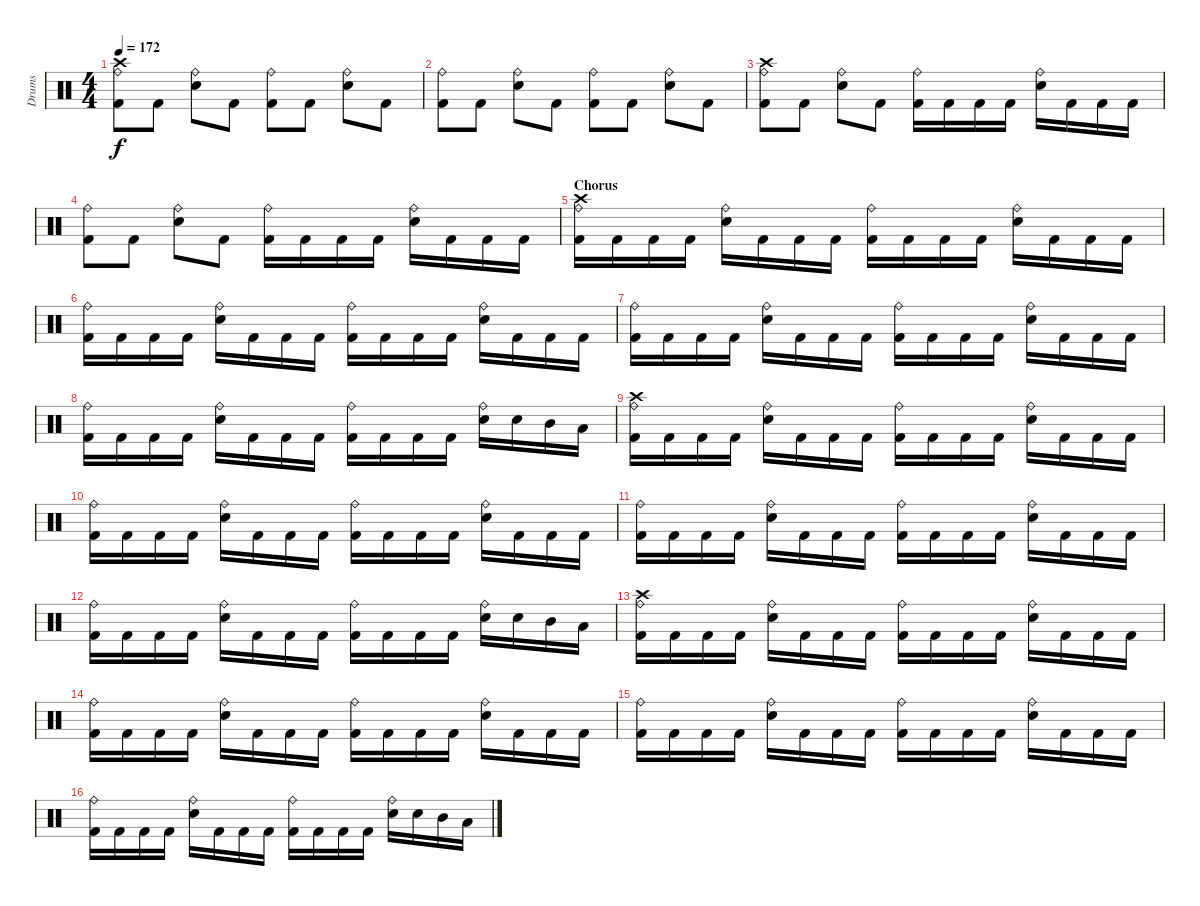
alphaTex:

\track ("Drums" "Drums") {instrument percussion}
\staff {score}
\articulation defaults
\ts (4 4)
\tempo 172
\clef neutral
\ks c
("Crash high (hit)" "Ride (bell)" "Kick (hit) 2").8{dy f} "Kick (hit) 2".8 ("Ride (bell)" "Electric Snare (hit)").8 "Kick (hit) 2".8 ("Ride (bell)" "Kick (hit) 2").8 "Kick (hit) 2".8 ("Ride (bell)" "Electric Snare (hit)").8 "Kick (hit) 2".8 |
("Ride (bell)" "Kick (hit) 2").8 "Kick (hit) 2".8 ("Ride (bell)" "Electric Snare (hit)").8 "Kick (hit) 2".8 ("Ride (bell)" "Kick (hit) 2").8 "Kick (hit) 2".8 ("Ride (bell)" "Electric Snare (hit)").8 "Kick (hit) 2".8 |
("Crash high (hit)" "Ride (bell)" "Kick (hit) 2").8 "Kick (hit) 2".8 ("Ride (bell)" "Electric Snare (hit)").8 "Kick (hit) 2".8 ("Ride (bell)" "Kick (hit) 2").16 "Kick (hit) 2".16 "Kick (hit) 2".16 "Kick (hit) 2".16 ("Ride (bell)" "Electric Snare (hit)").16 "Kick (hit) 2".16 "Kick (hit) 2".16 "Kick (hit) 2".16 |
("Ride (bell)" "Kick (hit) 2").8 "Kick (hit) 2".8 ("Ride (bell)" "Electric Snare (hit)").8 "Kick (hit) 2".8 ("Ride (bell)" "Kick (hit) 2").16 "Kick (hit) 2".16 "Kick (hit) 2".16 "Kick (hit) 2".16 ("Ride (bell)" "Electric Snare (hit)").16 "Kick (hit) 2".16 "Kick (hit) 2".16 "Kick (hit) 2".16 |
\section ("" "Chorus")
("Crash high (hit)" "Ride (bell)" "Kick (hit) 2").16 "Kick (hit) 2".16 "Kick (hit) 2".16 "Kick (hit) 2".16 ("Ride (bell)" "Electric Snare (hit)").16 "Kick (hit) 2".16 "Kick (hit) 2".16 "Kick (hit) 2".16 ("Ride (bell)" "Kick (hit) 2").16 "Kick (hit) 2".16 "Kick (hit) 2".16 "Kick (hit) 2".16 ("Ride (bell)" "Electric Snare (hit)").16 "Kick (hit) 2".16 "Kick (hit) 2".16 "Kick (hit) 2".16 |
("Ride (bell)" "Kick (hit) 2").16 "Kick (hit) 2".16 "Kick (hit) 2".16 "Kick (hit) 2".16 ("Ride (bell)" "Electric Snare (hit)").16 "Kick (hit) 2".16 "Kick (hit) 2".16 "Kick (hit) 2".16 ("Ride (bell)" "Kick (hit) 2").16 "Kick (hit) 2".16 "Kick (hit) 2".16 "Kick (hit) 2".16 ("Ride (bell)" "Electric Snare (hit)").16 "Kick (hit) 2".16 "Kick (hit) 2".16 "Kick (hit) 2".16 |
("Ride (bell)" "Kick (hit) 2").16 "Kick (hit) 2".16 "Kick (hit) 2".16 "Kick (hit) 2".16 ("Ride (bell)" "Electric Snare (hit)").16 "Kick (hit) 2".16 "Kick (hit) 2".16 "Kick (hit) 2".16 ("Ride (bell)" "Kick (hit) 2").16 "Kick (hit) 2".16 "Kick (hit) 2".16 "Kick (hit) 2".16 ("Ride (bell)" "Electric Snare (hit)").16 "Kick (hit) 2".16 "Kick (hit) 2".16 "Kick (hit) 2".16 |
("Ride (bell)" "Kick (hit) 2").16 "Kick (hit) 2".16 "Kick (hit) 2".16 "Kick (hit) 2".16 ("Ride (bell)" "Electric Snare (hit)").16 "Kick (hit) 2".16 "Kick (hit) 2".16 "Kick (hit) 2".16 ("Ride (bell)" "Kick (hit) 2").16 "Kick (hit) 2".16 "Kick (hit) 2".16 "Kick (hit) 2".16 ("Ride (bell)" "Electric Snare (hit)").16 "Electric Snare (hit)".16 "Mid Tom (hit)".16 "Low Tom (hit)".16 |
("Crash high (hit)" "Ride (bell)" "Kick (hit) 2").16 "Kick (hit) 2".16 "Kick (hit) 2".16 "Kick (hit) 2".16 ("Ride (bell)" "Electric Snare (hit)").16 "Kick (hit) 2".16 "Kick (hit) 2".16 "Kick (hit) 2".16 ("Ride (bell)" "Kick (hit) 2").16 "Kick (hit) 2".16 "Kick (hit) 2".16 "Kick (hit) 2".16 ("Ride (bell)" "Electric Snare (hit)").16 "Kick (hit) 2".16 "Kick (hit) 2".16 "Kick (hit) 2".16 |
("Ride (bell)" "Kick (hit) 2").16 "Kick (hit) 2".16 "Kick (hit) 2".16 "Kick (hit) 2".16 ("Ride (bell)" "Electric Snare (hit)").16 "Kick (hit) 2".16 "Kick (hit) 2".16 "Kick (hit) 2".16 ("Ride (bell)" "Kick (hit) 2").16 "Kick (hit) 2".16 "Kick (hit) 2".16 "Kick (hit) 2".16 ("Ride (bell)" "Electric Snare (hit)").16 "Kick (hit) 2".16 "Kick (hit) 2".16 "Kick (hit) 2".16 |
("Ride (bell)" "Kick (hit) 2").16 "Kick (hit) 2".16 "Kick (hit) 2".16 "Kick (hit) 2".16 ("Ride (bell)" "Electric Snare (hit)").16 "Kick (hit) 2".16 "Kick (hit) 2".16 "Kick (hit) 2".16 ("Ride (bell)" "Kick (hit) 2").16 "Kick (hit) 2".16 "Kick (hit) 2".16 "Kick (hit) 2".16 ("Ride (bell)" "Electric Snare (hit)").16 "Kick (hit) 2".16 "Kick (hit) 2".16 "Kick (hit) 2".16 |
("Ride (bell)" "Kick (hit) 2").16 "Kick (hit) 2".16 "Kick (hit) 2".16 "Kick (hit) 2".16 ("Ride (bell)" "Electric Snare (hit)").16 "Kick (hit) 2".16 "Kick (hit) 2".16 "Kick (hit) 2".16 ("Ride (bell)" "Kick (hit) 2").16 "Kick (hit) 2".16 "Kick (hit) 2".16 "Kick (hit) 2".16 ("Ride (bell)" "Electric Snare (hit)").16 "Electric Snare (hit)".16 "Mid Tom (hit)".16 "Low Tom (hit)".16 |
("Crash high (hit)" "Ride (bell)" "Kick (hit) 2").16 "Kick (hit) 2".16 "Kick (hit) 2".16 "Kick (hit) 2".16 ("Ride (bell)" "Electric Snare (hit)").16 "Kick (hit) 2".16 "Kick (hit) 2".16 "Kick (hit) 2".16 ("Ride (bell)" "Kick (hit) 2").16 "Kick (hit) 2".16 "Kick (hit) 2".16 "Kick (hit) 2".16 ("Ride (bell)" "Electric Snare (hit)").16 "Kick (hit) 2".16 "Kick (hit) 2".16 "Kick (hit) 2".16 |
("Ride (bell)" "Kick (hit) 2").16 "Kick (hit) 2".16 "Kick (hit) 2".16 "Kick (hit) 2".16 ("Ride (bell)" "Electric Snare (hit)").16 "Kick (hit) 2".16 "Kick (hit) 2".16 "Kick (hit) 2".16 ("Ride (bell)" "Kick (hit) 2").16 "Kick (hit) 2".16 "Kick (hit) 2".16 "Kick (hit) 2".16 ("Ride (bell)" "Electric Snare (hit)").16 "Kick (hit) 2".16 "Kick (hit) 2".16 "Kick (hit) 2".16 |
("Ride (bell)" "Kick (hit) 2").16 "Kick (hit) 2".16 "Kick (hit) 2".16 "Kick (hit) 2".16 ("Ride (bell)" "Electric Snare (hit)").16 "Kick (hit) 2".16 "Kick (hit) 2".16 "Kick (hit) 2".16 ("Ride (bell)" "Kick (hit) 2").16 "Kick (hit) 2".16 "Kick (hit) 2".16 "Kick (hit) 2".16 ("Ride (bell)" "Electric Snare (hit)").16 "Kick (hit) 2".16 "Kick (hit) 2".16 "Kick (hit) 2".16 |
("Ride (bell)" "Kick (hit) 2").16 "Kick (hit) 2".16 "Kick (hit) 2".16 "Kick (hit) 2".16 ("Ride (bell)" "Electric Snare (hit)").16 "Kick (hit) 2".16 "Kick (hit) 2".16 "Kick (hit) 2".16 ("Ride (bell)" "Kick (hit) 2").16 "Kick (hit) 2".16 "Kick (hit) 2".16 "Kick (hit) 2".16 ("Ride (bell)" "Electric Snare (hit)").16 "Electric Snare (hit)".16 "Mid Tom (hit)".16 "Low Tom (hit)".16
